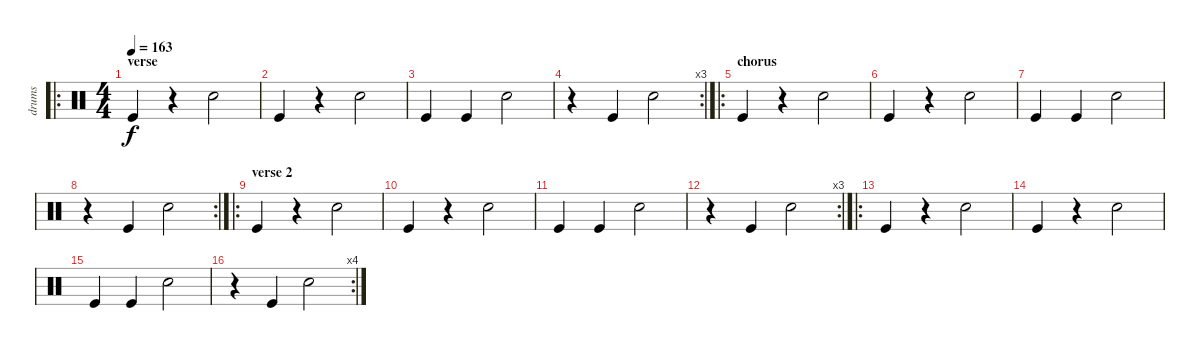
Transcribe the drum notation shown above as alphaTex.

\track ("drums" "drums") {instrument percussion}
\staff {score}
\articulation defaults
\ro
\ts (4 4)
\section ("" "verse ")
\tempo 163
\clef neutral
\ks c "Kick (hit)".4{dy f}
r.4 "Snare (hit) 2".2 |
"Kick (hit)".4 r.4 "Snare (hit) 2".2 |
"Kick (hit)".4 "Kick (hit)".4 "Snare (hit) 2".2 |
\rc 3
r.4 "Kick (hit)".4 "Snare (hit) 2".2 |
\ro
\section ("" "chorus ")
"Kick (hit)".4 r.4 "Snare (hit) 2".2 |
"Kick (hit)".4 r.4 "Snare (hit) 2".2 |
"Kick (hit)".4 "Kick (hit)".4 "Snare (hit) 2".2 |
\rc 2
r.4 "Kick (hit)".4 "Snare (hit) 2".2 |
\ro
\section ("" "verse 2")
"Kick (hit)".4 r.4 "Snare (hit) 2".2 |
"Kick (hit)".4 r.4 "Snare (hit) 2".2 |
"Kick (hit)".4 "Kick (hit)".4 "Snare (hit) 2".2 |
\rc 3
r.4 "Kick (hit)".4 "Snare (hit) 2".2 |
\ro "Kick (hit)".4
r.4 "Snare (hit) 2".2 |
"Kick (hit)".4 r.4 "Snare (hit) 2".2 |
"Kick (hit)".4 "Kick (hit)".4 "Snare (hit) 2".2 |
\rc 4
r.4 "Kick (hit)".4 "Snare (hit) 2".2
